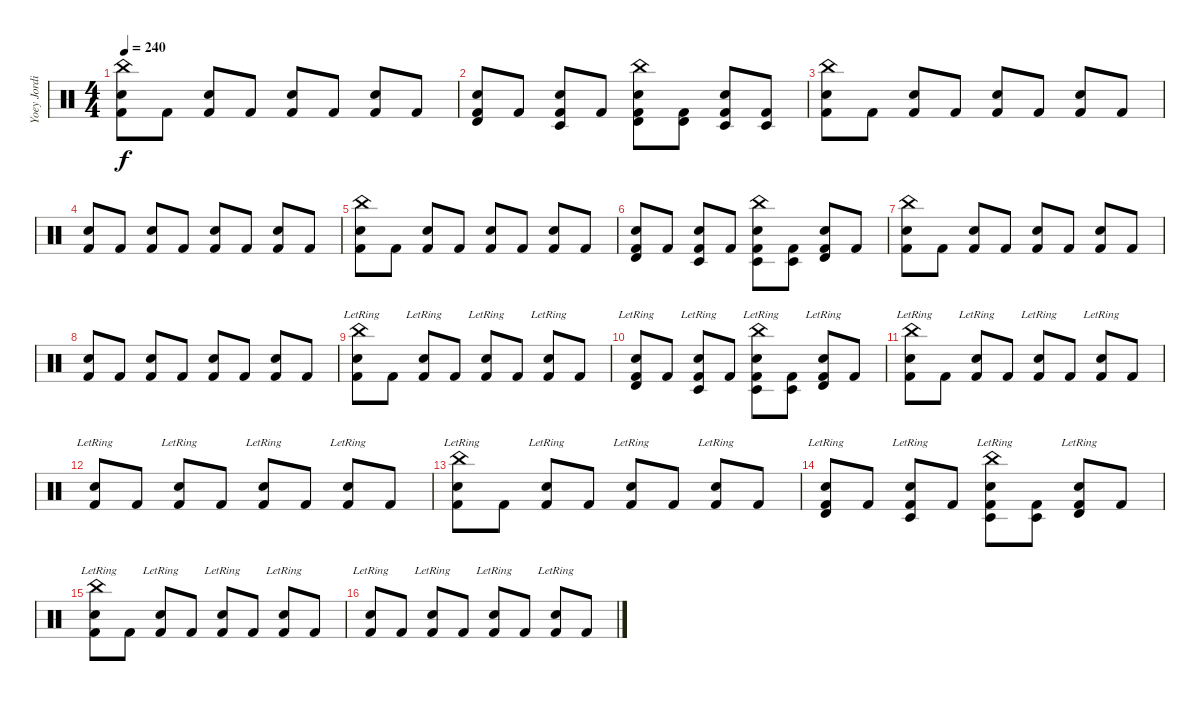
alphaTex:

\track ("Yoey Jordison" "Yoey Jordi") {instrument percussion}
\staff {score}
\articulation defaults
\ts (4 4)
\tempo 240
\clef neutral
\ks c
("China (hit)" "Kick (hit) 2" "Electric Snare (hit)").8{dy f} "Kick (hit) 2".8 ("Kick (hit) 2" "Electric Snare (hit)").8 "Kick (hit) 2".8 ("Kick (hit) 2" "Electric Snare (hit)").8 "Kick (hit) 2".8 ("Kick (hit) 2" "Electric Snare (hit)").8 "Kick (hit) 2".8 |
("Timbale high (hit)" "Kick (hit) 2" "Electric Snare (hit)").8 "Kick (hit) 2".8 ("Timbale low (hit)" "Kick (hit) 2" "Electric Snare (hit)").8 "Kick (hit) 2".8 ("China (hit)" "Timbale high (hit)" "Kick (hit) 2" "Electric Snare (hit)").8 ("Timbale high (hit)" "Kick (hit) 2").8 ("Timbale low (hit)" "Kick (hit) 2" "Electric Snare (hit)").8 ("Timbale low (hit)" "Kick (hit) 2").8 |
("China (hit)" "Kick (hit) 2" "Electric Snare (hit)").8 "Kick (hit) 2".8 ("Kick (hit) 2" "Electric Snare (hit)").8 "Kick (hit) 2".8 ("Kick (hit) 2" "Electric Snare (hit)").8 "Kick (hit) 2".8 ("Kick (hit) 2" "Electric Snare (hit)").8 "Kick (hit) 2".8 |
("Kick (hit) 2" "Electric Snare (hit)").8 "Kick (hit) 2".8 ("Kick (hit) 2" "Electric Snare (hit)").8 "Kick (hit) 2".8 ("Kick (hit) 2" "Electric Snare (hit)").8 "Kick (hit) 2".8 ("Kick (hit) 2" "Electric Snare (hit)").8 "Kick (hit) 2".8 |
("China (hit)" "Kick (hit) 2" "Electric Snare (hit)").8 "Kick (hit) 2".8 ("Kick (hit) 2" "Electric Snare (hit)").8 "Kick (hit) 2".8 ("Kick (hit) 2" "Electric Snare (hit)").8 "Kick (hit) 2".8 ("Kick (hit) 2" "Electric Snare (hit)").8 "Kick (hit) 2".8 |
("Timbale high (hit)" "Kick (hit) 2" "Electric Snare (hit)").8 "Kick (hit) 2".8 ("Timbale low (hit)" "Kick (hit) 2" "Electric Snare (hit)").8 "Kick (hit) 2".8 ("China (hit)" "Timbale low (hit)" "Kick (hit) 2" "Electric Snare (hit)").8 ("Timbale low (hit)" "Kick (hit) 2").8 ("Timbale high (hit)" "Kick (hit) 2" "Electric Snare (hit)").8 "Kick (hit) 2".8 |
("China (hit)" "Kick (hit) 2" "Electric Snare (hit)").8 "Kick (hit) 2".8 ("Kick (hit) 2" "Electric Snare (hit)").8 "Kick (hit) 2".8 ("Kick (hit) 2" "Electric Snare (hit)").8 "Kick (hit) 2".8 ("Kick (hit) 2" "Electric Snare (hit)").8 "Kick (hit) 2".8 |
("Kick (hit) 2" "Electric Snare (hit)").8 "Kick (hit) 2".8 ("Kick (hit) 2" "Electric Snare (hit)").8 "Kick (hit) 2".8 ("Kick (hit) 2" "Electric Snare (hit)").8 "Kick (hit) 2".8 ("Kick (hit) 2" "Electric Snare (hit)").8 "Kick (hit) 2".8 |
("China (hit)" "Kick (hit) 2" "Electric Snare (hit)"{lr}).8 "Kick (hit) 2".8 ("Kick (hit) 2" "Electric Snare (hit)"{lr}).8 "Kick (hit) 2".8 ("Kick (hit) 2" "Electric Snare (hit)"{lr}).8 "Kick (hit) 2".8 ("Kick (hit) 2" "Electric Snare (hit)"{lr}).8 "Kick (hit) 2".8 |
("Timbale high (hit)" "Kick (hit) 2" "Electric Snare (hit)"{lr}).8 "Kick (hit) 2".8 ("Timbale low (hit)" "Kick (hit) 2" "Electric Snare (hit)"{lr}).8 "Kick (hit) 2".8 ("China (hit)" "Timbale low (hit)" "Kick (hit) 2" "Electric Snare (hit)"{lr}).8 ("Timbale low (hit)" "Kick (hit) 2").8 ("Timbale high (hit)" "Kick (hit) 2" "Electric Snare (hit)"{lr}).8 "Kick (hit) 2".8 |
("China (hit)" "Kick (hit) 2" "Electric Snare (hit)"{lr}).8 "Kick (hit) 2".8 ("Kick (hit) 2" "Electric Snare (hit)"{lr}).8 "Kick (hit) 2".8 ("Kick (hit) 2" "Electric Snare (hit)"{lr}).8 "Kick (hit) 2".8 ("Kick (hit) 2" "Electric Snare (hit)"{lr}).8 "Kick (hit) 2".8 |
("Kick (hit) 2" "Electric Snare (hit)"{lr}).8 "Kick (hit) 2".8 ("Kick (hit) 2" "Electric Snare (hit)"{lr}).8 "Kick (hit) 2".8 ("Kick (hit) 2" "Electric Snare (hit)"{lr}).8 "Kick (hit) 2".8 ("Kick (hit) 2" "Electric Snare (hit)"{lr}).8 "Kick (hit) 2".8 |
("China (hit)" "Kick (hit) 2" "Electric Snare (hit)"{lr}).8 "Kick (hit) 2".8 ("Kick (hit) 2" "Electric Snare (hit)"{lr}).8 "Kick (hit) 2".8 ("Kick (hit) 2" "Electric Snare (hit)"{lr}).8 "Kick (hit) 2".8 ("Kick (hit) 2" "Electric Snare (hit)"{lr}).8 "Kick (hit) 2".8 |
("Timbale high (hit)" "Kick (hit) 2" "Electric Snare (hit)"{lr}).8 "Kick (hit) 2".8 ("Timbale low (hit)" "Kick (hit) 2" "Electric Snare (hit)"{lr}).8 "Kick (hit) 2".8 ("China (hit)" "Timbale low (hit)" "Kick (hit) 2" "Electric Snare (hit)"{lr}).8 ("Timbale low (hit)" "Kick (hit) 2").8 ("Timbale high (hit)" "Kick (hit) 2" "Electric Snare (hit)"{lr}).8 "Kick (hit) 2".8 |
("China (hit)" "Kick (hit) 2" "Electric Snare (hit)"{lr}).8 "Kick (hit) 2".8 ("Kick (hit) 2" "Electric Snare (hit)"{lr}).8 "Kick (hit) 2".8 ("Kick (hit) 2" "Electric Snare (hit)"{lr}).8 "Kick (hit) 2".8 ("Kick (hit) 2" "Electric Snare (hit)"{lr}).8 "Kick (hit) 2".8 |
("Kick (hit) 2" "Electric Snare (hit)"{lr}).8 "Kick (hit) 2".8 ("Kick (hit) 2" "Electric Snare (hit)"{lr}).8 "Kick (hit) 2".8 ("Kick (hit) 2" "Electric Snare (hit)"{lr}).8 "Kick (hit) 2".8 ("Kick (hit) 2" "Electric Snare (hit)"{lr}).8 "Kick (hit) 2".8
